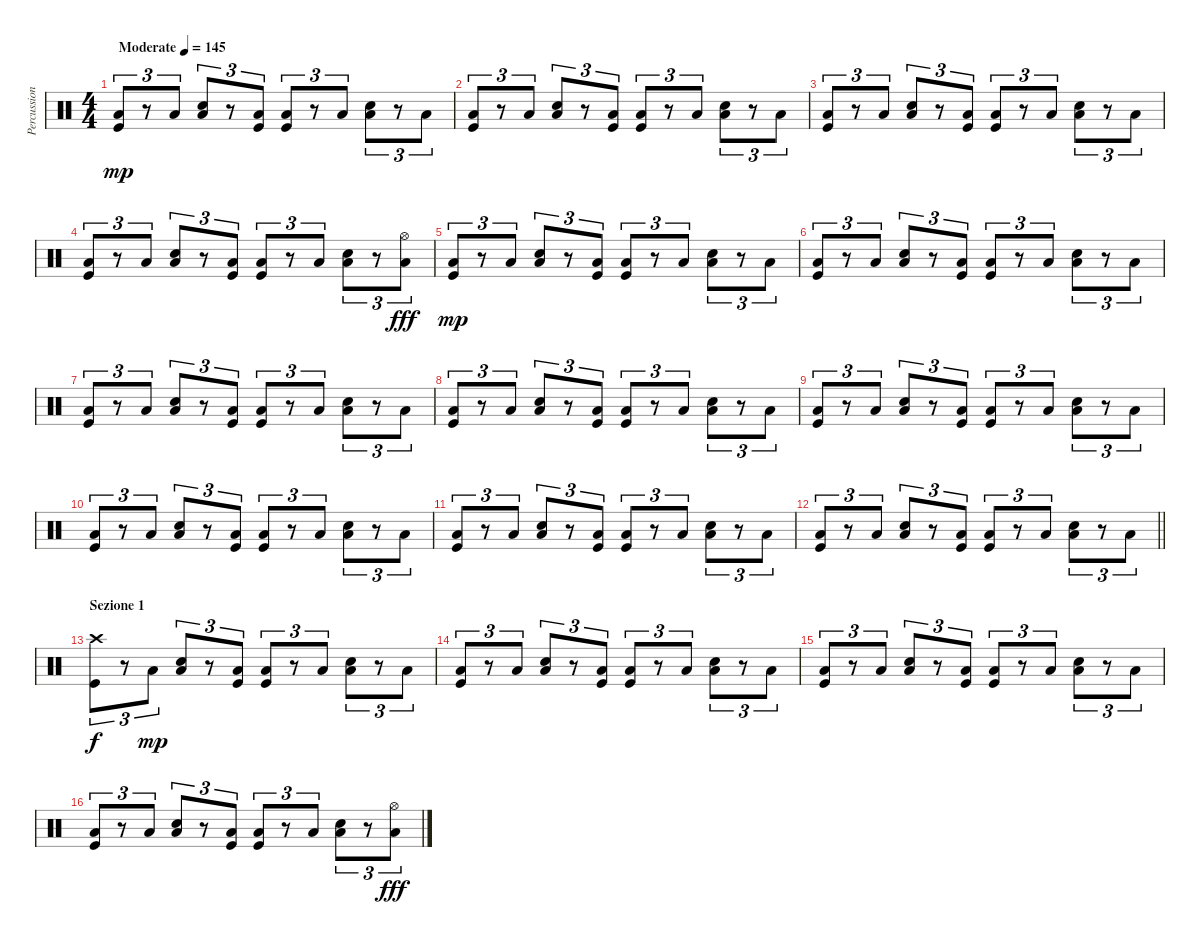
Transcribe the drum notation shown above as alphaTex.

\track ("Percussioni" "Percussion") {instrument percussion}
\staff {score}
\articulation defaults
\ts (4 4)
\tempo (145 "Moderate")
\clef neutral
\ks c
("Low Floor Tom (hit)" "Kick (hit)").8{tu (3 2) dy mp} r.8{tu (3 2)} "Low Floor Tom (hit)".8{tu (3 2)} ("Low Floor Tom (hit)" "Snare (hit) 2").8{tu (3 2)} r.8{tu (3 2)} ("Low Floor Tom (hit)" "Kick (hit)").8{tu (3 2)} ("Low Floor Tom (hit)" "Kick (hit)").8{tu (3 2)} r.8{tu (3 2)} "Low Floor Tom (hit)".8{tu (3 2)} ("Low Floor Tom (hit)" "Snare (hit) 2").8{tu (3 2)} r.8{tu (3 2)} "Low Floor Tom (hit)".8{tu (3 2)} |
("Low Floor Tom (hit)" "Kick (hit)").8{tu (3 2)} r.8{tu (3 2)} "Low Floor Tom (hit)".8{tu (3 2)} ("Low Floor Tom (hit)" "Snare (hit) 2").8{tu (3 2)} r.8{tu (3 2)} ("Low Floor Tom (hit)" "Kick (hit)").8{tu (3 2)} ("Low Floor Tom (hit)" "Kick (hit)").8{tu (3 2)} r.8{tu (3 2)} "Low Floor Tom (hit)".8{tu (3 2)} ("Low Floor Tom (hit)" "Snare (hit) 2").8{tu (3 2)} r.8{tu (3 2)} "Low Floor Tom (hit)".8{tu (3 2)} |
("Low Floor Tom (hit)" "Kick (hit)").8{tu (3 2)} r.8{tu (3 2)} "Low Floor Tom (hit)".8{tu (3 2)} ("Low Floor Tom (hit)" "Snare (hit) 2").8{tu (3 2)} r.8{tu (3 2)} ("Low Floor Tom (hit)" "Kick (hit)").8{tu (3 2)} ("Low Floor Tom (hit)" "Kick (hit)").8{tu (3 2)} r.8{tu (3 2)} "Low Floor Tom (hit)".8{tu (3 2)} ("Low Floor Tom (hit)" "Snare (hit) 2").8{tu (3 2)} r.8{tu (3 2)} "Low Floor Tom (hit)".8{tu (3 2)} |
("Low Floor Tom (hit)" "Kick (hit)").8{tu (3 2)} r.8{tu (3 2)} "Low Floor Tom (hit)".8{tu (3 2)} ("Low Floor Tom (hit)" "Snare (hit) 2").8{tu (3 2)} r.8{tu (3 2)} ("Low Floor Tom (hit)" "Kick (hit)").8{tu (3 2)} ("Low Floor Tom (hit)" "Kick (hit)").8{tu (3 2)} r.8{tu (3 2)} "Low Floor Tom (hit)".8{tu (3 2)} ("Low Floor Tom (hit)" "Snare (hit) 2").8{tu (3 2)} r.8{tu (3 2)} ("Low Floor Tom (hit)" "Hi-Hat (open)").8{tu (3 2) dy fff} |
("Low Floor Tom (hit)" "Kick (hit)").8{tu (3 2) dy mp} r.8{tu (3 2)} "Low Floor Tom (hit)".8{tu (3 2)} ("Low Floor Tom (hit)" "Snare (hit) 2").8{tu (3 2)} r.8{tu (3 2)} ("Low Floor Tom (hit)" "Kick (hit)").8{tu (3 2)} ("Low Floor Tom (hit)" "Kick (hit)").8{tu (3 2)} r.8{tu (3 2)} "Low Floor Tom (hit)".8{tu (3 2)} ("Low Floor Tom (hit)" "Snare (hit) 2").8{tu (3 2)} r.8{tu (3 2)} "Low Floor Tom (hit)".8{tu (3 2)} |
("Low Floor Tom (hit)" "Kick (hit)").8{tu (3 2)} r.8{tu (3 2)} "Low Floor Tom (hit)".8{tu (3 2)} ("Low Floor Tom (hit)" "Snare (hit) 2").8{tu (3 2)} r.8{tu (3 2)} ("Low Floor Tom (hit)" "Kick (hit)").8{tu (3 2)} ("Low Floor Tom (hit)" "Kick (hit)").8{tu (3 2)} r.8{tu (3 2)} "Low Floor Tom (hit)".8{tu (3 2)} ("Low Floor Tom (hit)" "Snare (hit) 2").8{tu (3 2)} r.8{tu (3 2)} "Low Floor Tom (hit)".8{tu (3 2)} |
("Low Floor Tom (hit)" "Kick (hit)").8{tu (3 2)} r.8{tu (3 2)} "Low Floor Tom (hit)".8{tu (3 2)} ("Low Floor Tom (hit)" "Snare (hit) 2").8{tu (3 2)} r.8{tu (3 2)} ("Low Floor Tom (hit)" "Kick (hit)").8{tu (3 2)} ("Low Floor Tom (hit)" "Kick (hit)").8{tu (3 2)} r.8{tu (3 2)} "Low Floor Tom (hit)".8{tu (3 2)} ("Low Floor Tom (hit)" "Snare (hit) 2").8{tu (3 2)} r.8{tu (3 2)} "Low Floor Tom (hit)".8{tu (3 2)} |
("Low Floor Tom (hit)" "Kick (hit)").8{tu (3 2)} r.8{tu (3 2)} "Low Floor Tom (hit)".8{tu (3 2)} ("Low Floor Tom (hit)" "Snare (hit) 2").8{tu (3 2)} r.8{tu (3 2)} ("Low Floor Tom (hit)" "Kick (hit)").8{tu (3 2)} ("Low Floor Tom (hit)" "Kick (hit)").8{tu (3 2)} r.8{tu (3 2)} "Low Floor Tom (hit)".8{tu (3 2)} ("Low Floor Tom (hit)" "Snare (hit) 2").8{tu (3 2)} r.8{tu (3 2)} "Low Floor Tom (hit)".8{tu (3 2)} |
("Low Floor Tom (hit)" "Kick (hit)").8{tu (3 2)} r.8{tu (3 2)} "Low Floor Tom (hit)".8{tu (3 2)} ("Low Floor Tom (hit)" "Snare (hit) 2").8{tu (3 2)} r.8{tu (3 2)} ("Low Floor Tom (hit)" "Kick (hit)").8{tu (3 2)} ("Low Floor Tom (hit)" "Kick (hit)").8{tu (3 2)} r.8{tu (3 2)} "Low Floor Tom (hit)".8{tu (3 2)} ("Low Floor Tom (hit)" "Snare (hit) 2").8{tu (3 2)} r.8{tu (3 2)} "Low Floor Tom (hit)".8{tu (3 2)} |
("Low Floor Tom (hit)" "Kick (hit)").8{tu (3 2)} r.8{tu (3 2)} "Low Floor Tom (hit)".8{tu (3 2)} ("Low Floor Tom (hit)" "Snare (hit) 2").8{tu (3 2)} r.8{tu (3 2)} ("Low Floor Tom (hit)" "Kick (hit)").8{tu (3 2)} ("Low Floor Tom (hit)" "Kick (hit)").8{tu (3 2)} r.8{tu (3 2)} "Low Floor Tom (hit)".8{tu (3 2)} ("Low Floor Tom (hit)" "Snare (hit) 2").8{tu (3 2)} r.8{tu (3 2)} "Low Floor Tom (hit)".8{tu (3 2)} |
("Low Floor Tom (hit)" "Kick (hit)").8{tu (3 2)} r.8{tu (3 2)} "Low Floor Tom (hit)".8{tu (3 2)} ("Low Floor Tom (hit)" "Snare (hit) 2").8{tu (3 2)} r.8{tu (3 2)} ("Low Floor Tom (hit)" "Kick (hit)").8{tu (3 2)} ("Low Floor Tom (hit)" "Kick (hit)").8{tu (3 2)} r.8{tu (3 2)} "Low Floor Tom (hit)".8{tu (3 2)} ("Low Floor Tom (hit)" "Snare (hit) 2").8{tu (3 2)} r.8{tu (3 2)} "Low Floor Tom (hit)".8{tu (3 2)} |
\barLineRight lightlight
("Low Floor Tom (hit)" "Kick (hit)").8{tu (3 2)} r.8{tu (3 2)} "Low Floor Tom (hit)".8{tu (3 2)} ("Low Floor Tom (hit)" "Snare (hit) 2").8{tu (3 2)} r.8{tu (3 2)} ("Low Floor Tom (hit)" "Kick (hit)").8{tu (3 2)} ("Low Floor Tom (hit)" "Kick (hit)").8{tu (3 2)} r.8{tu (3 2)} "Low Floor Tom (hit)".8{tu (3 2)} ("Low Floor Tom (hit)" "Snare (hit) 2").8{tu (3 2)} r.8{tu (3 2)} "Low Floor Tom (hit)".8{tu (3 2)} |
\section ("" "Sezione 1")
("Crash high (hit)" "Kick (hit)").8{tu (3 2) dy f} r.8{tu (3 2)} "Low Floor Tom (hit)".8{tu (3 2) dy mp} ("Low Floor Tom (hit)" "Snare (hit) 2").8{tu (3 2)} r.8{tu (3 2)} ("Low Floor Tom (hit)" "Kick (hit)").8{tu (3 2)} ("Low Floor Tom (hit)" "Kick (hit)").8{tu (3 2)} r.8{tu (3 2)} "Low Floor Tom (hit)".8{tu (3 2)} ("Low Floor Tom (hit)" "Snare (hit) 2").8{tu (3 2)} r.8{tu (3 2)} "Low Floor Tom (hit)".8{tu (3 2)} |
("Low Floor Tom (hit)" "Kick (hit)").8{tu (3 2)} r.8{tu (3 2)} "Low Floor Tom (hit)".8{tu (3 2)} ("Low Floor Tom (hit)" "Snare (hit) 2").8{tu (3 2)} r.8{tu (3 2)} ("Low Floor Tom (hit)" "Kick (hit)").8{tu (3 2)} ("Low Floor Tom (hit)" "Kick (hit)").8{tu (3 2)} r.8{tu (3 2)} "Low Floor Tom (hit)".8{tu (3 2)} ("Low Floor Tom (hit)" "Snare (hit) 2").8{tu (3 2)} r.8{tu (3 2)} "Low Floor Tom (hit)".8{tu (3 2)} |
("Low Floor Tom (hit)" "Kick (hit)").8{tu (3 2)} r.8{tu (3 2)} "Low Floor Tom (hit)".8{tu (3 2)} ("Low Floor Tom (hit)" "Snare (hit) 2").8{tu (3 2)} r.8{tu (3 2)} ("Low Floor Tom (hit)" "Kick (hit)").8{tu (3 2)} ("Low Floor Tom (hit)" "Kick (hit)").8{tu (3 2)} r.8{tu (3 2)} "Low Floor Tom (hit)".8{tu (3 2)} ("Low Floor Tom (hit)" "Snare (hit) 2").8{tu (3 2)} r.8{tu (3 2)} "Low Floor Tom (hit)".8{tu (3 2)} |
("Low Floor Tom (hit)" "Kick (hit)").8{tu (3 2)} r.8{tu (3 2)} "Low Floor Tom (hit)".8{tu (3 2)} ("Low Floor Tom (hit)" "Snare (hit) 2").8{tu (3 2)} r.8{tu (3 2)} ("Low Floor Tom (hit)" "Kick (hit)").8{tu (3 2)} ("Low Floor Tom (hit)" "Kick (hit)").8{tu (3 2)} r.8{tu (3 2)} "Low Floor Tom (hit)".8{tu (3 2)} ("Low Floor Tom (hit)" "Snare (hit) 2").8{tu (3 2)} r.8{tu (3 2)} ("Low Floor Tom (hit)" "Hi-Hat (open)").8{tu (3 2) dy fff}
